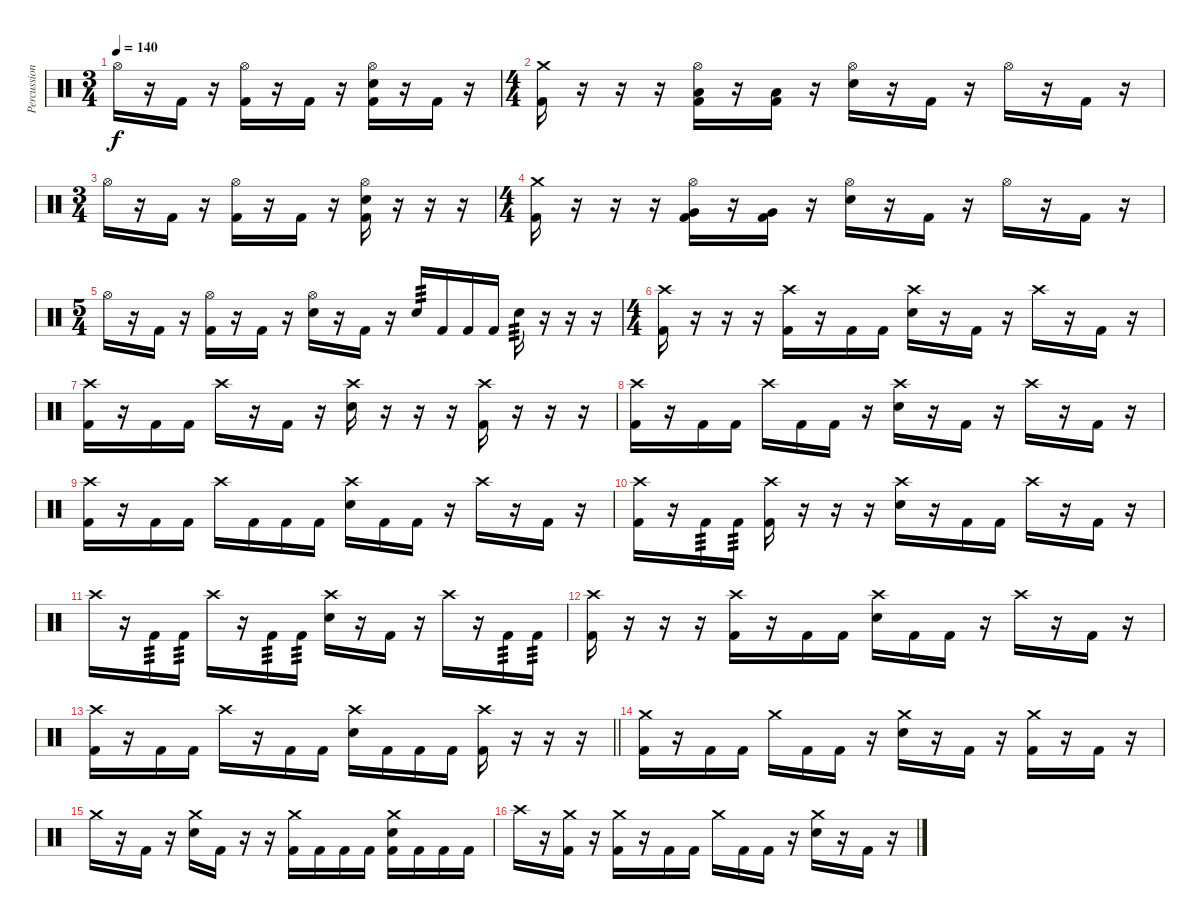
\track ("Percussion" "Percussion") {instrument percussion}
\staff {score}
\articulation defaults
\ts (3 4)
\tempo 140
\clef neutral
\ks c "Hi-Hat (open)".16{dy f}
r.16 "Kick (hit) 2".16 r.16 ("Hi-Hat (open)" "Kick (hit) 2").16 r.16 "Kick (hit) 2".16 r.16 ("Hi-Hat (open)" "Snare (hit) 2" "Kick (hit) 2").16 r.16 "Kick (hit) 2".16 r.16 |
\ts (4 4)
("Crash medium (hit)" "Kick (hit) 2").16 r.16 r.16 r.16 ("Hi-Hat (open)" "Low Floor Tom (hit)" "Kick (hit) 2").16 r.16 ("Low Floor Tom (hit)" "Kick (hit) 2").16 r.16 ("Hi-Hat (open)" "Snare (hit) 2").16 r.16 "Kick (hit) 2".16 r.16 "Hi-Hat (open)".16 r.16 "Kick (hit) 2".16 r.16 |
\ts (3 4)
"Hi-Hat (open)".16 r.16 "Kick (hit) 2".16 r.16 ("Hi-Hat (open)" "Kick (hit) 2").16 r.16 "Kick (hit) 2".16 r.16 ("Hi-Hat (open)" "Snare (hit) 2" "Kick (hit) 2").16 r.16 r.16 r.16 |
\ts (4 4)
("Crash medium (hit)" "Kick (hit) 2").16 r.16 r.16 r.16 ("Hi-Hat (open)" "Very Low Tom (hit)" "Kick (hit) 2").16 r.16 ("Very Low Tom (hit)" "Kick (hit) 2").16 r.16 ("Hi-Hat (open)" "Snare (hit) 2").16 r.16 "Kick (hit) 2".16 r.16 "Hi-Hat (open)".16 r.16 "Kick (hit) 2".16 r.16 |
\ts (5 4)
"Hi-Hat (open)".16 r.16 "Kick (hit) 2".16 r.16 ("Hi-Hat (open)" "Kick (hit) 2").16 r.16 "Kick (hit) 2".16 r.16 ("Hi-Hat (open)" "Snare (hit) 2").16 r.16 "Kick (hit) 2".16 r.16 "Snare (hit) 2".16{tp 3} "Kick (hit) 2".16 "Kick (hit) 2".16 "Kick (hit) 2".16 "Snare (hit) 2".16{tp 3} r.16 r.16 r.16 |
\ts (4 4)
("Crash high (hit)" "Kick (hit) 2").16 r.16 r.16 r.16 ("Crash high (hit)" "Kick (hit) 2").16 r.16 "Kick (hit) 2".16 "Kick (hit) 2".16 ("Crash high (hit)" "Snare (hit) 2").16 r.16 "Kick (hit) 2".16 r.16 "Crash high (hit)".16 r.16 "Kick (hit) 2".16 r.16 |
("Crash high (hit)" "Kick (hit) 2").16 r.16 "Kick (hit) 2".16 "Kick (hit) 2".16 "Crash high (hit)".16 r.16 "Kick (hit) 2".16 r.16 ("Crash high (hit)" "Snare (hit) 2").16 r.16 r.16 r.16 ("Crash high (hit)" "Kick (hit) 2").16 r.16 r.16 r.16 |
("Crash high (hit)" "Kick (hit) 2").16 r.16 "Kick (hit) 2".16 "Kick (hit) 2".16 "Crash high (hit)".16 "Kick (hit) 2".16 "Kick (hit) 2".16 r.16 ("Crash high (hit)" "Snare (hit) 2").16 r.16 "Kick (hit) 2".16 r.16 "Crash high (hit)".16 r.16 "Kick (hit) 2".16 r.16 |
("Crash high (hit)" "Kick (hit) 2").16 r.16 "Kick (hit) 2".16 "Kick (hit) 2".16 "Crash high (hit)".16 "Kick (hit) 2".16 "Kick (hit) 2".16 "Kick (hit) 2".16 ("Crash high (hit)" "Snare (hit) 2").16 "Kick (hit) 2".16 "Kick (hit) 2".16 r.16 "Crash high (hit)".16 r.16 "Kick (hit) 2".16 r.16 |
("Crash high (hit)" "Kick (hit) 2").16 r.16 "Kick (hit) 2".16{tp 3} "Kick (hit) 2".16{tp 3} ("Crash high (hit)" "Kick (hit) 2").16 r.16 r.16 r.16 ("Crash high (hit)" "Snare (hit) 2").16 r.16 "Kick (hit) 2".16 "Kick (hit) 2".16 "Crash high (hit)".16 r.16 "Kick (hit) 2".16 r.16 |
"Crash high (hit)".16 r.16 "Kick (hit) 2".16{tp 3} "Kick (hit) 2".16{tp 3} "Crash high (hit)".16 r.16 "Kick (hit) 2".16{tp 3} "Kick (hit) 2".16{tp 3} ("Crash high (hit)" "Snare (hit) 2").16 r.16 "Kick (hit) 2".16 r.16 "Crash high (hit)".16 r.16 "Kick (hit) 2".16{tp 3} "Kick (hit) 2".16{tp 3} |
("Crash high (hit)" "Kick (hit) 2").16 r.16 r.16 r.16 ("Crash high (hit)" "Kick (hit) 2").16 r.16 "Kick (hit) 2".16 "Kick (hit) 2".16 ("Crash high (hit)" "Snare (hit) 2").16 "Kick (hit) 2".16 "Kick (hit) 2".16 r.16 "Crash high (hit)".16 r.16 "Kick (hit) 2".16 r.16 |
\barLineRight lightlight
("Crash high (hit)" "Kick (hit) 2").16 r.16 "Kick (hit) 2".16 "Kick (hit) 2".16 "Crash high (hit)".16 r.16 "Kick (hit) 2".16 "Kick (hit) 2".16 ("Crash high (hit)" "Snare (hit) 2").16 "Kick (hit) 2".16 "Kick (hit) 2".16 "Kick (hit) 2".16 ("Crash high (hit)" "Kick (hit) 2").16 r.16 r.16 r.16 |
("Crash medium (hit)" "Kick (hit) 2").16 r.16 "Kick (hit) 2".16 "Kick (hit) 2".16 "Crash medium (hit)".16 "Kick (hit) 2".16 "Kick (hit) 2".16 r.16 ("Crash medium (hit)" "Snare (hit) 2").16 r.16 "Kick (hit) 2".16 r.16 ("Crash medium (hit)" "Kick (hit) 2").16 r.16 "Kick (hit) 2".16 r.16 |
"Crash medium (hit)".16 r.16 "Kick (hit) 2".16 r.16 ("Crash medium (hit)" "Snare (hit) 2").16 "Kick (hit) 2".16 r.16 r.16 ("Crash medium (hit)" "Kick (hit) 2").16 "Kick (hit) 2".16 "Kick (hit) 2".16 "Kick (hit) 2".16 ("Crash medium (hit)" "Snare (hit) 2" "Kick (hit) 2").16 "Kick (hit) 2".16 "Kick (hit) 2".16 "Kick (hit) 2".16 |
"Crash high (hit)".16 r.16 ("Crash medium (hit)" "Kick (hit) 2").16 r.16 ("Crash medium (hit)" "Kick (hit) 2").16 r.16 "Kick (hit) 2".16 "Kick (hit) 2".16 "Crash medium (hit)".16 "Kick (hit) 2".16 "Kick (hit) 2".16 r.16 ("Crash medium (hit)" "Snare (hit) 2").16 r.16 "Kick (hit) 2".16 r.16
